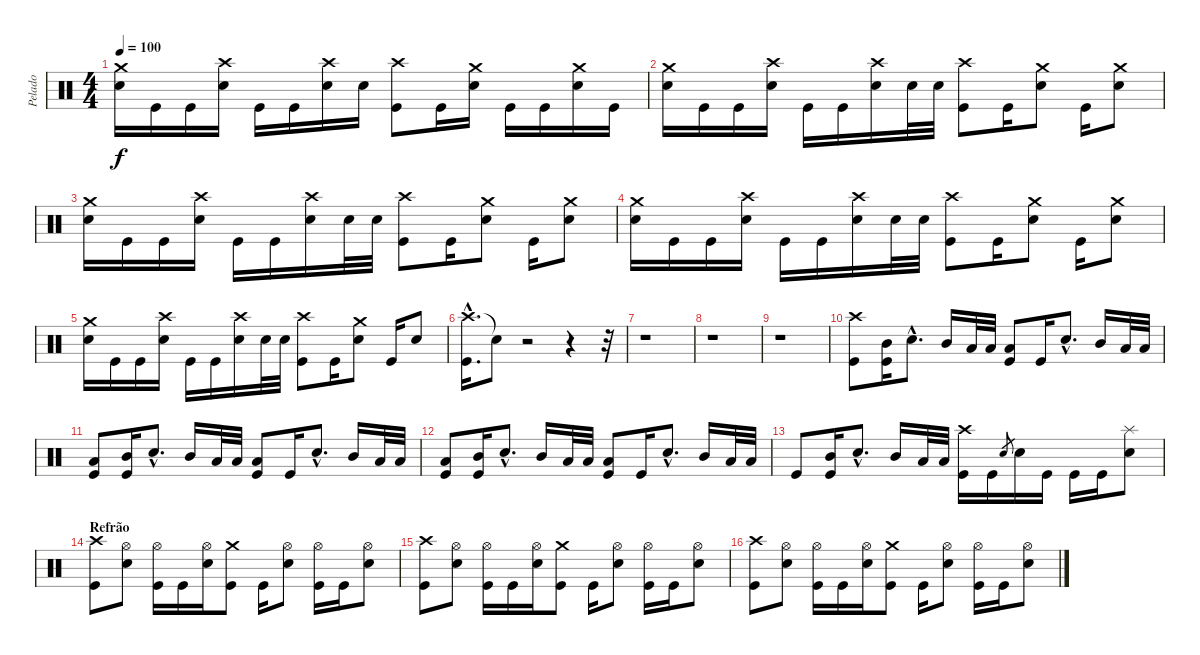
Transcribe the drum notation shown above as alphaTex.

\track ("Pelado" "Pelado") {instrument percussion}
\staff {score}
\articulation defaults
\ts (4 4)
\tempo 100
\clef neutral
\ks c
("Crash medium (hit)" "Electric Snare (hit)").16{dy f} "Kick (hit)".16 "Kick (hit)".16 ("Crash high (hit)" "Electric Snare (hit)").16 "Kick (hit)".16 "Kick (hit)".16 ("Crash high (hit)" "Electric Snare (hit)").16 "Electric Snare (hit)".16 ("Crash high (hit)" "Kick (hit)").8 "Kick (hit)".16 ("Crash medium (hit)" "Electric Snare (hit)").16 "Kick (hit)".16 "Kick (hit)".16 ("Crash medium (hit)" "Electric Snare (hit)").16 "Kick (hit)".16 |
("Crash medium (hit)" "Electric Snare (hit)").16 "Kick (hit)".16 "Kick (hit)".16 ("Crash high (hit)" "Electric Snare (hit)").16 "Kick (hit)".16 "Kick (hit)".16 ("Crash high (hit)" "Electric Snare (hit)").16 "Electric Snare (hit)".32 "Electric Snare (hit)".32 ("Crash high (hit)" "Kick (hit)").8 "Kick (hit)".16 ("Crash medium (hit)" "Electric Snare (hit)").8 "Kick (hit)".16 ("Crash medium (hit)" "Electric Snare (hit)").8 |
("Crash medium (hit)" "Electric Snare (hit)").16 "Kick (hit)".16 "Kick (hit)".16 ("Crash high (hit)" "Electric Snare (hit)").16 "Kick (hit)".16 "Kick (hit)".16 ("Crash high (hit)" "Electric Snare (hit)").16 "Electric Snare (hit)".32 "Electric Snare (hit)".32 ("Crash high (hit)" "Kick (hit)").8 "Kick (hit)".16 ("Crash medium (hit)" "Electric Snare (hit)").8 "Kick (hit)".16 ("Crash medium (hit)" "Electric Snare (hit)").8 |
("Crash medium (hit)" "Electric Snare (hit)").16 "Kick (hit)".16 "Kick (hit)".16 ("Crash high (hit)" "Electric Snare (hit)").16 "Kick (hit)".16 "Kick (hit)".16 ("Crash high (hit)" "Electric Snare (hit)").16 "Electric Snare (hit)".32 "Electric Snare (hit)".32 ("Crash high (hit)" "Kick (hit)").8 "Kick (hit)".16 ("Crash medium (hit)" "Electric Snare (hit)").8 "Kick (hit)".16 ("Crash medium (hit)" "Electric Snare (hit)").8 |
("Crash medium (hit)" "Electric Snare (hit)").16 "Kick (hit)".16 "Kick (hit)".16 ("Crash high (hit)" "Electric Snare (hit)").16 "Kick (hit)".16 "Kick (hit)".16 ("Crash high (hit)" "Electric Snare (hit)").16 "Electric Snare (hit)".32 "Electric Snare (hit)".32 ("Crash high (hit)" "Kick (hit)").8 "Kick (hit)".16 ("Crash medium (hit)" "Electric Snare (hit)").8 "Kick (hit)".16 "Electric Snare (hit)".8 |
("Crash high (hit)"{hac} "Kick (hit)"{hac}).16{d} "Snare (hit)"{t}.8{volume 0} r.2 r.4 r.32 |
r.1 |
r.1 |
r.1 |
("Crash high (hit)" "Kick (hit)").8{volume 16} ("Mid Tom (hit)" "Kick (hit)").16 "Electric Snare (hit)"{hac}.8{d} "Mid Tom (hit)".16 "Low Tom (hit)".32 "Low Tom (hit)".32 ("Low Tom (hit)" "Kick (hit)").8 "Kick (hit)".16 "Electric Snare (hit)"{hac}.8{d} "Mid Tom (hit)".16 "Low Tom (hit)".32 "Low Tom (hit)".32 |
("Low Tom (hit)" "Kick (hit)").8 ("Mid Tom (hit)" "Kick (hit)").16 "Electric Snare (hit)"{hac}.8{d} "Mid Tom (hit)".16 "Low Tom (hit)".32 "Low Tom (hit)".32 ("Low Tom (hit)" "Kick (hit)").8 "Kick (hit)".16 "Electric Snare (hit)"{hac}.8{d} "Mid Tom (hit)".16 "Low Tom (hit)".32 "Low Tom (hit)".32 |
("Low Tom (hit)" "Kick (hit)").8 ("Mid Tom (hit)" "Kick (hit)").16 "Electric Snare (hit)"{hac}.8{d} "Mid Tom (hit)".16 "Low Tom (hit)".32 "Low Tom (hit)".32 ("Low Tom (hit)" "Kick (hit)").8 "Kick (hit)".16 "Electric Snare (hit)"{hac}.8{d} "Mid Tom (hit)".16 "Low Tom (hit)".32 "Low Tom (hit)".32 |
"Kick (hit)".8 ("Mid Tom (hit)" "Kick (hit)").16 "Electric Snare (hit)"{hac}.8{d} "Mid Tom (hit)".16 "Low Tom (hit)".32 "Low Tom (hit)".32 ("Crash high (hit)" "Kick (hit)").16 "Kick (hit)".16 "Electric Snare (hit)".8{gr} "Electric Snare (hit)".16 "Kick (hit)".16 "Kick (hit)".16 "Kick (hit)".16 ("Splash (hit)" "Electric Snare (hit)").8 |
\section ("" "Refrão")
("Crash high (hit)" "Kick (hit)").8 ("Hi-Hat (open)" "Electric Snare (hit)").8 ("Hi-Hat (open)" "Kick (hit)").16 "Kick (hit)".16 ("Hi-Hat (open)" "Electric Snare (hit)").16 ("Crash medium (hit)" "Kick (hit)").8 "Kick (hit)".16 ("Hi-Hat (open)" "Electric Snare (hit)").8 ("Hi-Hat (open)" "Kick (hit)").16 "Kick (hit)".16 ("Hi-Hat (open)" "Electric Snare (hit)").8 |
("Crash high (hit)" "Kick (hit)").8 ("Hi-Hat (open)" "Electric Snare (hit)").8 ("Hi-Hat (open)" "Kick (hit)").16 "Kick (hit)".16 ("Hi-Hat (open)" "Electric Snare (hit)").16 ("Crash medium (hit)" "Kick (hit)").8 "Kick (hit)".16 ("Hi-Hat (open)" "Electric Snare (hit)").8 ("Hi-Hat (open)" "Kick (hit)").16 "Kick (hit)".16 ("Hi-Hat (open)" "Electric Snare (hit)").8 |
("Crash high (hit)" "Kick (hit)").8 ("Hi-Hat (open)" "Electric Snare (hit)").8 ("Hi-Hat (open)" "Kick (hit)").16 "Kick (hit)".16 ("Hi-Hat (open)" "Electric Snare (hit)").16 ("Crash medium (hit)" "Kick (hit)").8 "Kick (hit)".16 ("Hi-Hat (open)" "Electric Snare (hit)").8 ("Hi-Hat (open)" "Kick (hit)").16 "Kick (hit)".16 ("Hi-Hat (open)" "Electric Snare (hit)").8
